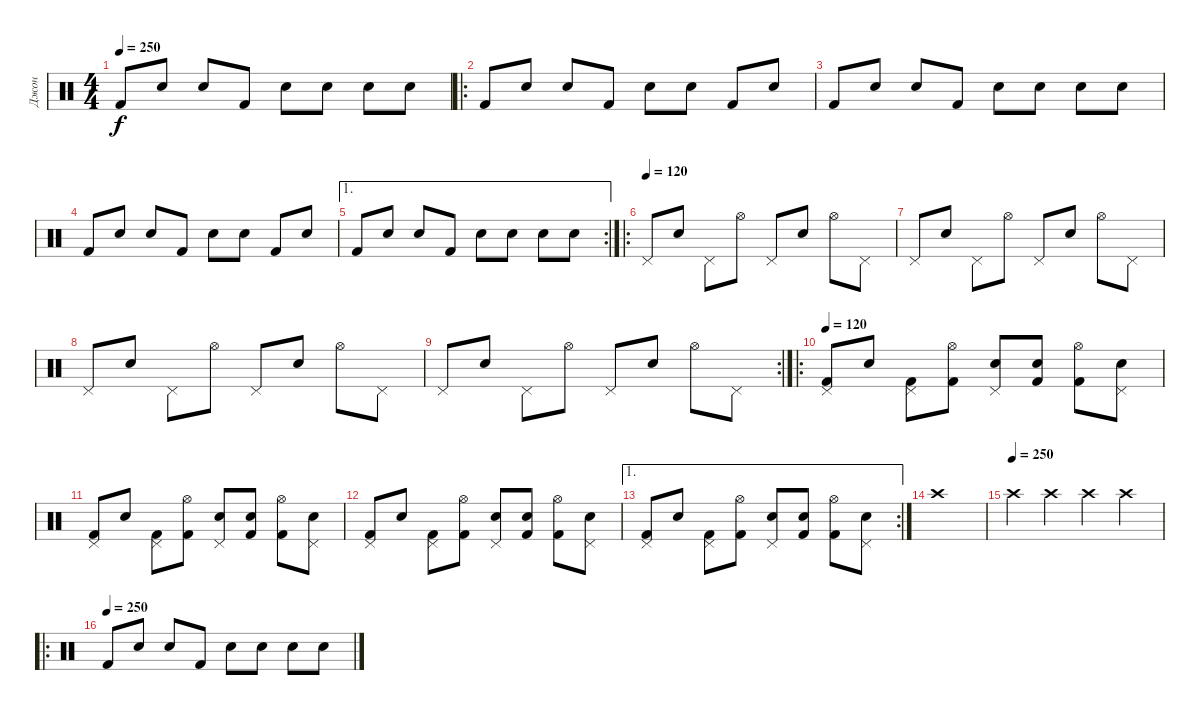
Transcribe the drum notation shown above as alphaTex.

\track ("Джон" "Джон") {instrument percussion}
\staff {score}
\articulation defaults
\ts (4 4)
\tempo 250
\clef neutral
\ks c "Kick (hit) 2".8{dy f} "Snare (hit)".8 "Snare (hit)".8 "Kick (hit) 2".8 "Electric Snare (hit)".8 "Snare (hit)".8 "Snare (hit)".8 "Electric Snare (hit)".8
|
\ro "Kick (hit) 2".8 "Snare (hit)".8 "Snare (hit)".8 "Kick (hit) 2".8 "Electric Snare (hit)".8 "Snare (hit)".8 "Kick (hit) 2".8 "Snare (hit)".8
|
"Kick (hit) 2".8 "Snare (hit)".8 "Snare (hit)".8 "Kick (hit) 2".8 "Electric Snare (hit)".8 "Snare (hit)".8 "Snare (hit)".8 "Electric Snare (hit)".8 |
"Kick (hit) 2".8 "Snare (hit)".8 "Snare (hit)".8 "Kick (hit) 2".8 "Electric Snare (hit)".8 "Snare (hit)".8 "Kick (hit) 2".8 "Snare (hit)".8 |
\ae 1
\rc 2 "Kick (hit) 2".8 "Snare (hit)".8 "Snare (hit)".8 "Kick (hit) 2".8 "Electric Snare (hit)".8 "Snare (hit)".8 "Snare (hit)".8 "Electric Snare (hit)".8
|
\ro
\tempo (120)
"Pedal Hi-Hat (hit)".8 "Snare (hit)".8 "Pedal Hi-Hat (hit)".8 "Hi-Hat (open)".8 "Pedal Hi-Hat (hit)".8 "Snare (hit)".8 "Hi-Hat (open)".8 "Pedal Hi-Hat (hit)".8 |
"Pedal Hi-Hat (hit)".8 "Snare (hit)".8 "Pedal Hi-Hat (hit)".8 "Hi-Hat (open)".8 "Pedal Hi-Hat (hit)".8 "Snare (hit)".8 "Hi-Hat (open)".8 "Pedal Hi-Hat (hit)".8 |
"Pedal Hi-Hat (hit)".8 "Snare (hit)".8 "Pedal Hi-Hat (hit)".8 "Hi-Hat (open)".8 "Pedal Hi-Hat (hit)".8 "Snare (hit)".8 "Hi-Hat (open)".8 "Pedal Hi-Hat (hit)".8 |
\rc 2 "Pedal Hi-Hat (hit)".8 "Snare (hit)".8 "Pedal Hi-Hat (hit)".8 "Hi-Hat (open)".8 "Pedal Hi-Hat (hit)".8 "Snare (hit)".8 "Hi-Hat (open)".8 "Pedal Hi-Hat (hit)".8
|
\ro
\tempo 120
("Kick (hit) 2" "Pedal Hi-Hat (hit)").8 "Snare (hit)".8 ("Kick (hit) 2" "Pedal Hi-Hat (hit)").8 ("Kick (hit) 2" "Hi-Hat (open)").8 ("Snare (hit) 2" "Pedal Hi-Hat (hit)").8 ("Kick (hit) 2" "Snare (hit)").8 ("Kick (hit) 2" "Hi-Hat (open)").8 ("Snare (hit) 2" "Pedal Hi-Hat (hit)").8 |
("Kick (hit) 2" "Pedal Hi-Hat (hit)").8 "Snare (hit)".8 ("Kick (hit) 2" "Pedal Hi-Hat (hit)").8 ("Kick (hit) 2" "Hi-Hat (open)").8 ("Snare (hit) 2" "Pedal Hi-Hat (hit)").8 ("Kick (hit) 2" "Snare (hit)").8 ("Kick (hit) 2" "Hi-Hat (open)").8 ("Snare (hit) 2" "Pedal Hi-Hat (hit)").8 |
("Kick (hit) 2" "Pedal Hi-Hat (hit)").8 "Snare (hit)".8 ("Kick (hit) 2" "Pedal Hi-Hat (hit)").8 ("Kick (hit) 2" "Hi-Hat (open)").8 ("Snare (hit) 2" "Pedal Hi-Hat (hit)").8 ("Kick (hit) 2" "Snare (hit)").8 ("Kick (hit) 2" "Hi-Hat (open)").8 ("Snare (hit) 2" "Pedal Hi-Hat (hit)").8 |
\ae 1
\rc 2
("Kick (hit) 2" "Pedal Hi-Hat (hit)").8 "Snare (hit)".8 ("Kick (hit) 2" "Pedal Hi-Hat (hit)").8 ("Kick (hit) 2" "Hi-Hat (open)").8 ("Snare (hit) 2" "Pedal Hi-Hat (hit)").8 ("Kick (hit) 2" "Snare (hit)").8 ("Kick (hit) 2" "Hi-Hat (open)").8 ("Snare (hit) 2" "Pedal Hi-Hat (hit)").8 |
"Crash high (hit)".1 |
\tempo (250)
"Crash high (hit)".4 "Crash high (hit)".4 "Crash high (hit)".4 "Crash high (hit)".4 |
\ro
\tempo (250)
"Kick (hit) 2".8 "Snare (hit)".8 "Snare (hit)".8 "Kick (hit) 2".8 "Electric Snare (hit)".8 "Snare (hit)".8 "Snare (hit)".8 "Electric Snare (hit)".8
